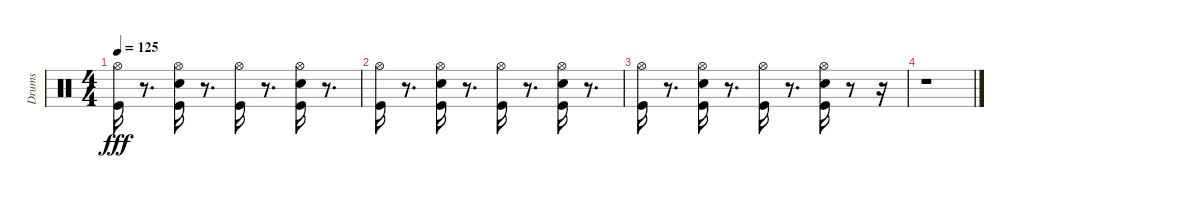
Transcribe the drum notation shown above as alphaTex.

\track ("Drums" "Drums") {instrument percussion}
\staff {score}
\articulation defaults
\ts (4 4)
\tempo 125
\clef neutral
\ks c
("Hi-Hat (open)" "Kick (hit)").16{dy fff} r.8{d} ("Kick (hit)" "Snare (hit) 2" "Hi-Hat (open)").16 r.8{d} ("Kick (hit)" "Hi-Hat (open)").16 r.8{d} ("Kick (hit)" "Snare (hit) 2" "Hi-Hat (open)").16 r.8{d} |
("Hi-Hat (open)" "Kick (hit)").16 r.8{d} ("Kick (hit)" "Snare (hit) 2" "Hi-Hat (open)").16 r.8{d} ("Kick (hit)" "Hi-Hat (open)").16 r.8{d} ("Kick (hit)" "Snare (hit) 2" "Hi-Hat (open)").16 r.8{d} |
("Hi-Hat (open)" "Kick (hit)").16 r.8{d} ("Kick (hit)" "Snare (hit) 2" "Hi-Hat (open)").16 r.8{d} ("Kick (hit)" "Hi-Hat (open)").16 r.8{d} ("Kick (hit)" "Snare (hit) 2" "Hi-Hat (open)").16 r.8 r.16 |
r.1
